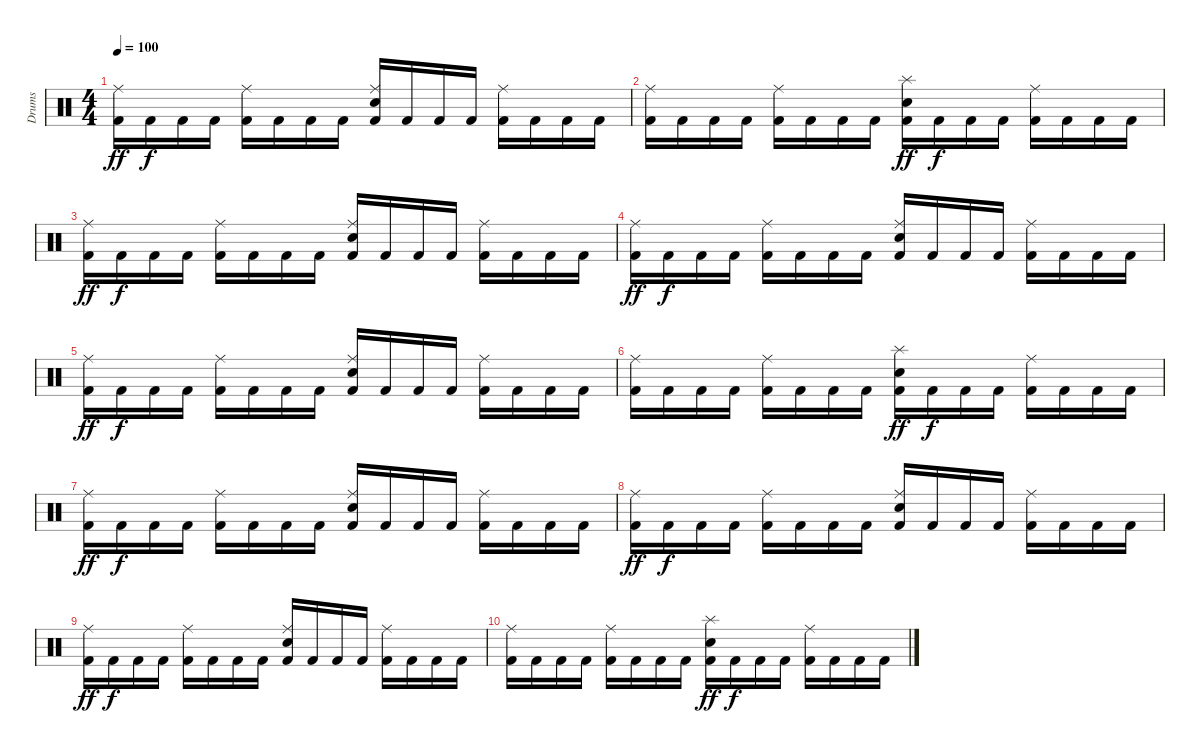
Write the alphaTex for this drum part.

\track ("Drums" "Drums") {instrument percussion}
\staff {score}
\articulation defaults
\ts (4 4)
\tempo 100
\clef neutral
\ks c
("Kick (hit) 2" "Ride (middle)").16{dy ff} "Kick (hit) 2".16{dy f} "Kick (hit) 2".16 "Kick (hit) 2".16 ("Kick (hit) 2" "Ride (middle)").16 "Kick (hit) 2".16 "Kick (hit) 2".16 "Kick (hit) 2".16 ("Kick (hit) 2" "Electric Snare (hit)" "Ride (middle)").16 "Kick (hit) 2".16 "Kick (hit) 2".16 "Kick (hit) 2".16 ("Kick (hit) 2" "Ride (middle)").16 "Kick (hit) 2".16 "Kick (hit) 2".16 "Kick (hit) 2".16 |
("Kick (hit) 2" "Ride (middle)").16 "Kick (hit) 2".16 "Kick (hit) 2".16 "Kick (hit) 2".16 ("Kick (hit) 2" "Ride (middle)").16 "Kick (hit) 2".16 "Kick (hit) 2".16 "Kick (hit) 2".16 ("Kick (hit) 2" "Electric Snare (hit)" "Splash (hit)").16{dy ff} "Kick (hit) 2".16{dy f} "Kick (hit) 2".16 "Kick (hit) 2".16 ("Kick (hit) 2" "Ride (middle)").16 "Kick (hit) 2".16 "Kick (hit) 2".16 "Kick (hit) 2".16 |
("Kick (hit) 2" "Ride (middle)").16{dy ff} "Kick (hit) 2".16{dy f} "Kick (hit) 2".16 "Kick (hit) 2".16 ("Kick (hit) 2" "Ride (middle)").16 "Kick (hit) 2".16 "Kick (hit) 2".16 "Kick (hit) 2".16 ("Kick (hit) 2" "Electric Snare (hit)" "Ride (middle)").16 "Kick (hit) 2".16 "Kick (hit) 2".16 "Kick (hit) 2".16 ("Kick (hit) 2" "Ride (middle)").16 "Kick (hit) 2".16 "Kick (hit) 2".16 "Kick (hit) 2".16 |
("Kick (hit) 2" "Ride (middle)").16{dy ff} "Kick (hit) 2".16{dy f} "Kick (hit) 2".16 "Kick (hit) 2".16 ("Kick (hit) 2" "Ride (middle)").16 "Kick (hit) 2".16 "Kick (hit) 2".16 "Kick (hit) 2".16 ("Kick (hit) 2" "Electric Snare (hit)" "Ride (middle)").16 "Kick (hit) 2".16 "Kick (hit) 2".16 "Kick (hit) 2".16 ("Kick (hit) 2" "Ride (middle)").16 "Kick (hit) 2".16 "Kick (hit) 2".16 "Kick (hit) 2".16 |
("Kick (hit) 2" "Ride (middle)").16{dy ff} "Kick (hit) 2".16{dy f} "Kick (hit) 2".16 "Kick (hit) 2".16 ("Kick (hit) 2" "Ride (middle)").16 "Kick (hit) 2".16 "Kick (hit) 2".16 "Kick (hit) 2".16 ("Kick (hit) 2" "Electric Snare (hit)" "Ride (middle)").16 "Kick (hit) 2".16 "Kick (hit) 2".16 "Kick (hit) 2".16 ("Kick (hit) 2" "Ride (middle)").16 "Kick (hit) 2".16 "Kick (hit) 2".16 "Kick (hit) 2".16 |
("Kick (hit) 2" "Ride (middle)").16 "Kick (hit) 2".16 "Kick (hit) 2".16 "Kick (hit) 2".16 ("Kick (hit) 2" "Ride (middle)").16 "Kick (hit) 2".16 "Kick (hit) 2".16 "Kick (hit) 2".16 ("Kick (hit) 2" "Electric Snare (hit)" "Splash (hit)").16{dy ff} "Kick (hit) 2".16{dy f} "Kick (hit) 2".16 "Kick (hit) 2".16 ("Kick (hit) 2" "Ride (middle)").16 "Kick (hit) 2".16 "Kick (hit) 2".16 "Kick (hit) 2".16 |
("Kick (hit) 2" "Ride (middle)").16{dy ff} "Kick (hit) 2".16{dy f} "Kick (hit) 2".16 "Kick (hit) 2".16 ("Kick (hit) 2" "Ride (middle)").16 "Kick (hit) 2".16 "Kick (hit) 2".16 "Kick (hit) 2".16 ("Kick (hit) 2" "Electric Snare (hit)" "Ride (middle)").16 "Kick (hit) 2".16 "Kick (hit) 2".16 "Kick (hit) 2".16 ("Kick (hit) 2" "Ride (middle)").16 "Kick (hit) 2".16 "Kick (hit) 2".16 "Kick (hit) 2".16 |
("Kick (hit) 2" "Ride (middle)").16{dy ff} "Kick (hit) 2".16{dy f} "Kick (hit) 2".16 "Kick (hit) 2".16 ("Kick (hit) 2" "Ride (middle)").16 "Kick (hit) 2".16 "Kick (hit) 2".16 "Kick (hit) 2".16 ("Kick (hit) 2" "Electric Snare (hit)" "Ride (middle)").16 "Kick (hit) 2".16 "Kick (hit) 2".16 "Kick (hit) 2".16 ("Kick (hit) 2" "Ride (middle)").16 "Kick (hit) 2".16 "Kick (hit) 2".16 "Kick (hit) 2".16 |
("Kick (hit) 2" "Ride (middle)").16{dy ff} "Kick (hit) 2".16{dy f} "Kick (hit) 2".16 "Kick (hit) 2".16 ("Kick (hit) 2" "Ride (middle)").16 "Kick (hit) 2".16 "Kick (hit) 2".16 "Kick (hit) 2".16 ("Kick (hit) 2" "Electric Snare (hit)" "Ride (middle)").16 "Kick (hit) 2".16 "Kick (hit) 2".16 "Kick (hit) 2".16 ("Kick (hit) 2" "Ride (middle)").16 "Kick (hit) 2".16 "Kick (hit) 2".16 "Kick (hit) 2".16 |
("Kick (hit) 2" "Ride (middle)").16 "Kick (hit) 2".16 "Kick (hit) 2".16 "Kick (hit) 2".16 ("Kick (hit) 2" "Ride (middle)").16 "Kick (hit) 2".16 "Kick (hit) 2".16 "Kick (hit) 2".16 ("Kick (hit) 2" "Electric Snare (hit)" "Splash (hit)").16{dy ff} "Kick (hit) 2".16{dy f} "Kick (hit) 2".16 "Kick (hit) 2".16 ("Kick (hit) 2" "Ride (middle)").16 "Kick (hit) 2".16 "Kick (hit) 2".16 "Kick (hit) 2".16
